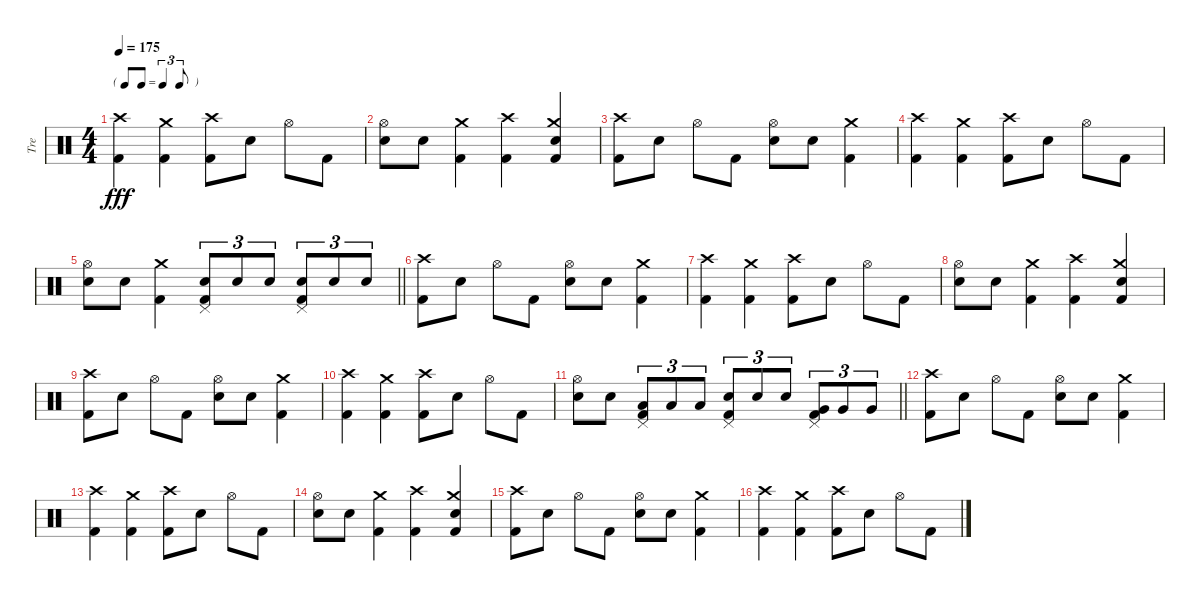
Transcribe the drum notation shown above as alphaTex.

\track ("Tre" "Tre") {instrument percussion}
\staff {score}
\articulation defaults
\ts (4 4)
\tf triplet8th
\tempo 175
\clef neutral
\ks c
("Crash high (hit)" "Kick (hit) 2").4{dy fff} ("Crash medium (hit)" "Kick (hit) 2").4 ("Crash high (hit)" "Kick (hit) 2").8 "Snare (hit) 2".8 "Hi-Hat (open)".8 "Kick (hit) 2".8 |
("Hi-Hat (open)" "Snare (hit) 2").8 "Snare (hit) 2".8 ("Crash medium (hit)" "Kick (hit) 2").4 ("Crash high (hit)" "Kick (hit) 2").4 ("Crash medium (hit)" "Snare (hit) 2" "Kick (hit) 2").4 |
("Crash high (hit)" "Kick (hit) 2").8 "Snare (hit) 2".8 "Hi-Hat (open)".8 "Kick (hit) 2".8 ("Hi-Hat (open)" "Snare (hit) 2").8 "Snare (hit) 2".8 ("Crash medium (hit)" "Kick (hit) 2").4 |
("Crash high (hit)" "Kick (hit) 2").4 ("Crash medium (hit)" "Kick (hit) 2").4 ("Crash high (hit)" "Kick (hit) 2").8 "Snare (hit) 2".8 "Hi-Hat (open)".8 "Kick (hit) 2".8 |
\barLineRight lightlight
("Hi-Hat (open)" "Snare (hit) 2").8 "Snare (hit) 2".8 ("Crash medium (hit)" "Kick (hit) 2").4 ("Snare (hit) 2" "Pedal Hi-Hat (hit)" "Kick (hit) 2").8{tu (3 2)} "Snare (hit) 2".8{tu (3 2)} "Snare (hit) 2".8{tu (3 2)} ("Snare (hit) 2" "Pedal Hi-Hat (hit)" "Kick (hit) 2").8{tu (3 2)} "Snare (hit) 2".8{tu (3 2)} "Snare (hit) 2".8{tu (3 2)} |
("Crash high (hit)" "Kick (hit) 2").8 "Snare (hit) 2".8 "Hi-Hat (open)".8 "Kick (hit) 2".8 ("Hi-Hat (open)" "Snare (hit) 2").8 "Snare (hit) 2".8 ("Crash medium (hit)" "Kick (hit) 2").4 |
("Crash high (hit)" "Kick (hit) 2").4 ("Crash medium (hit)" "Kick (hit) 2").4 ("Crash high (hit)" "Kick (hit) 2").8 "Snare (hit) 2".8 "Hi-Hat (open)".8 "Kick (hit) 2".8 |
("Hi-Hat (open)" "Snare (hit) 2").8 "Snare (hit) 2".8 ("Crash medium (hit)" "Kick (hit) 2").4 ("Crash high (hit)" "Kick (hit) 2").4 ("Crash medium (hit)" "Snare (hit) 2" "Kick (hit) 2").4 |
("Crash high (hit)" "Kick (hit) 2").8 "Snare (hit) 2".8 "Hi-Hat (open)".8 "Kick (hit) 2".8 ("Hi-Hat (open)" "Snare (hit) 2").8 "Snare (hit) 2".8 ("Crash medium (hit)" "Kick (hit) 2").4 |
("Crash high (hit)" "Kick (hit) 2").4 ("Crash medium (hit)" "Kick (hit) 2").4 ("Crash high (hit)" "Kick (hit) 2").8 "Snare (hit) 2".8 "Hi-Hat (open)".8 "Kick (hit) 2".8 |
\barLineRight lightlight
("Hi-Hat (open)" "Snare (hit) 2").8 "Snare (hit) 2".8 ("Low Tom (hit)" "Pedal Hi-Hat (hit)" "Kick (hit) 2").8{tu (3 2)} "Low Tom (hit)".8{tu (3 2)} "Low Tom (hit)".8{tu (3 2)} ("Snare (hit) 2" "Pedal Hi-Hat (hit)" "Kick (hit) 2").8{tu (3 2)} "Snare (hit) 2".8{tu (3 2)} "Snare (hit) 2".8{tu (3 2)} ("Very Low Tom (hit)" "Pedal Hi-Hat (hit)" "Kick (hit) 2").8{tu (3 2)} "Very Low Tom (hit)".8{tu (3 2)} "Very Low Tom (hit)".8{tu (3 2)} |
("Crash high (hit)" "Kick (hit) 2").8 "Snare (hit) 2".8 "Hi-Hat (open)".8 "Kick (hit) 2".8 ("Hi-Hat (open)" "Snare (hit) 2").8 "Snare (hit) 2".8 ("Crash medium (hit)" "Kick (hit) 2").4 |
("Crash high (hit)" "Kick (hit) 2").4 ("Crash medium (hit)" "Kick (hit) 2").4 ("Crash high (hit)" "Kick (hit) 2").8 "Snare (hit) 2".8 "Hi-Hat (open)".8 "Kick (hit) 2".8 |
("Hi-Hat (open)" "Snare (hit) 2").8 "Snare (hit) 2".8 ("Crash medium (hit)" "Kick (hit) 2").4 ("Crash high (hit)" "Kick (hit) 2").4 ("Crash medium (hit)" "Snare (hit) 2" "Kick (hit) 2").4 |
("Crash high (hit)" "Kick (hit) 2").8 "Snare (hit) 2".8 "Hi-Hat (open)".8 "Kick (hit) 2".8 ("Hi-Hat (open)" "Snare (hit) 2").8 "Snare (hit) 2".8 ("Crash medium (hit)" "Kick (hit) 2").4 |
("Crash high (hit)" "Kick (hit) 2").4 ("Crash medium (hit)" "Kick (hit) 2").4 ("Crash high (hit)" "Kick (hit) 2").8 "Snare (hit) 2".8 "Hi-Hat (open)".8 "Kick (hit) 2".8
